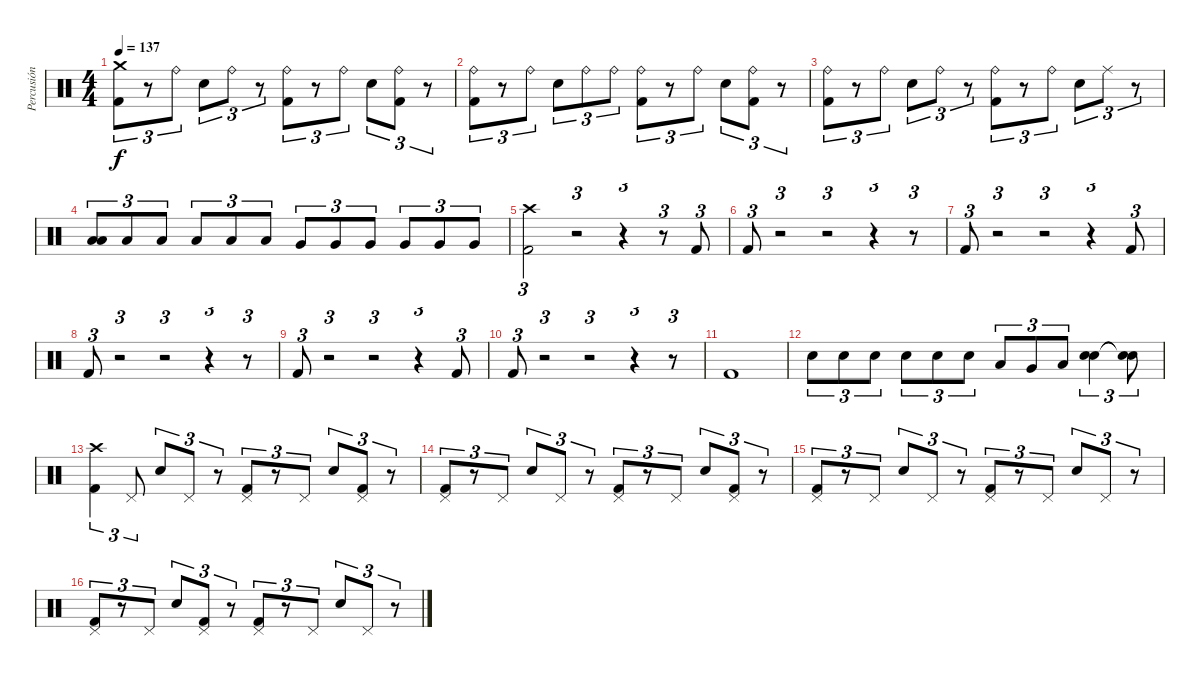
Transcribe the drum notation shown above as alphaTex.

\track ("Percusión" "Percusión") {instrument percussion}
\staff {score}
\articulation defaults
\ts (4 4)
\tempo 137
\clef neutral
\ks c
("Kick (hit) 2" "Crash medium (hit)").8{tu (3 2) dy f} r.8{tu (3 2)} "Ride (bell)".8{tu (3 2)} "Electric Snare (hit)".8{tu (3 2)} "Ride (bell)".8{tu (3 2)} r.8{tu (3 2)} ("Kick (hit) 2" "Ride (bell)").8{tu (3 2)} r.8{tu (3 2)} "Ride (bell)".8{tu (3 2)} "Electric Snare (hit)".8{tu (3 2)} ("Kick (hit) 2" "Ride (bell)").8{tu (3 2)} r.8{tu (3 2)} |
("Kick (hit) 2" "Ride (bell)").8{tu (3 2)} r.8{tu (3 2)} "Ride (bell)".8{tu (3 2)} "Electric Snare (hit)".8{tu (3 2)} "Ride (bell)".8{tu (3 2)} "Ride (bell)".8{tu (3 2)} ("Kick (hit) 2" "Ride (bell)").8{tu (3 2)} r.8{tu (3 2)} "Ride (bell)".8{tu (3 2)} "Electric Snare (hit)".8{tu (3 2)} ("Kick (hit) 2" "Ride (bell)").8{tu (3 2)} r.8{tu (3 2)} |
("Kick (hit) 2" "Ride (bell)").8{tu (3 2)} r.8{tu (3 2)} "Ride (bell)".8{tu (3 2)} "Electric Snare (hit)".8{tu (3 2)} "Ride (bell)".8{tu (3 2)} r.8{tu (3 2)} ("Kick (hit) 2" "Ride (bell)").8{tu (3 2)} r.8{tu (3 2)} "Ride (bell)".8{tu (3 2)} "Electric Snare (hit)".8{tu (3 2)} "Ride (middle)".8{tu (3 2)} r.8{tu (3 2)} |
("Low Floor Tom (hit)" "Low Floor Tom (hit)").8{tu (3 2) bd 480} "Low Floor Tom (hit)".8{tu (3 2)} "Low Floor Tom (hit)".8{tu (3 2)} "Low Floor Tom (hit)".8{tu (3 2)} "Low Floor Tom (hit)".8{tu (3 2)} "Low Floor Tom (hit)".8{tu (3 2)} "Very Low Tom (hit)".8{tu (3 2)} "Very Low Tom (hit)".8{tu (3 2)} "Very Low Tom (hit)".8{tu (3 2)} "Very Low Tom (hit)".8{tu (3 2)} "Very Low Tom (hit)".8{tu (3 2)} "Very Low Tom (hit)".8{tu (3 2)} |
("Kick (hit) 2" "Crash high (hit)").2{tu (3 2)} r.2{tu (3 2)} r.4{tu (3 2)} r.8{tu (3 2)} "Kick (hit) 2".8{tu (3 2)} |
"Kick (hit) 2".8{tu (3 2)} r.2{tu (3 2)} r.2{tu (3 2)} r.4{tu (3 2)} r.8{tu (3 2)} |
"Kick (hit) 2".8{tu (3 2)} r.2{tu (3 2)} r.2{tu (3 2)} r.4{tu (3 2)} "Kick (hit) 2".8{tu (3 2)} |
"Kick (hit) 2".8{tu (3 2)} r.2{tu (3 2)} r.2{tu (3 2)} r.4{tu (3 2)} r.8{tu (3 2)} |
"Kick (hit) 2".8{tu (3 2)} r.2{tu (3 2)} r.2{tu (3 2)} r.4{tu (3 2)} "Kick (hit) 2".8{tu (3 2)} |
"Kick (hit) 2".8{tu (3 2)} r.2{tu (3 2)} r.2{tu (3 2)} r.4{tu (3 2)} r.8{tu (3 2)} |
"Kick (hit) 2".1 |
"Electric Snare (hit)".8{tu (3 2)} "Electric Snare (hit)".8{tu (3 2)} "Electric Snare (hit)".8{tu (3 2)} "Electric Snare (hit)".8{tu (3 2)} "Electric Snare (hit)".8{tu (3 2)} "Electric Snare (hit)".8{tu (3 2)} "Low Tom (hit)".8{tu (3 2)} "Very Low Tom (hit)".8{tu (3 2)} "Low Floor Tom (hit)".8{tu (3 2)} ("Electric Snare (hit)" "Electric Snare (hit)").4{tu (3 2) bd 480} ("Electric Snare (hit)"{t} "Electric Snare (hit)"{t}).8{tu (3 2)} |
("Kick (hit) 2" "Crash high (hit)").4{tu (3 2)} "Pedal Hi-Hat (hit)".8{tu (3 2)} "Electric Snare (hit)".8{tu (3 2)} "Pedal Hi-Hat (hit)".8{tu (3 2)} r.8{tu (3 2)} ("Kick (hit) 2" "Pedal Hi-Hat (hit)").8{tu (3 2)} r.8{tu (3 2)} "Pedal Hi-Hat (hit)".8{tu (3 2)} "Electric Snare (hit)".8{tu (3 2)} ("Kick (hit) 2" "Pedal Hi-Hat (hit)").8{tu (3 2)} r.8{tu (3 2)} |
("Kick (hit) 2" "Pedal Hi-Hat (hit)").8{tu (3 2)} r.8{tu (3 2)} "Pedal Hi-Hat (hit)".8{tu (3 2)} "Electric Snare (hit)".8{tu (3 2)} "Pedal Hi-Hat (hit)".8{tu (3 2)} r.8{tu (3 2)} ("Kick (hit) 2" "Pedal Hi-Hat (hit)").8{tu (3 2)} r.8{tu (3 2)} "Pedal Hi-Hat (hit)".8{tu (3 2)} "Electric Snare (hit)".8{tu (3 2)} ("Kick (hit) 2" "Pedal Hi-Hat (hit)").8{tu (3 2)} r.8{tu (3 2)} |
("Kick (hit) 2" "Pedal Hi-Hat (hit)").8{tu (3 2)} r.8{tu (3 2)} "Pedal Hi-Hat (hit)".8{tu (3 2)} "Electric Snare (hit)".8{tu (3 2)} "Pedal Hi-Hat (hit)".8{tu (3 2)} r.8{tu (3 2)} ("Kick (hit) 2" "Pedal Hi-Hat (hit)").8{tu (3 2)} r.8{tu (3 2)} "Pedal Hi-Hat (hit)".8{tu (3 2)} "Electric Snare (hit)".8{tu (3 2)} "Pedal Hi-Hat (hit)".8{tu (3 2)} r.8{tu (3 2)} |
("Kick (hit) 2" "Pedal Hi-Hat (hit)").8{tu (3 2)} r.8{tu (3 2)} "Pedal Hi-Hat (hit)".8{tu (3 2)} "Electric Snare (hit)".8{tu (3 2)} ("Kick (hit) 2" "Pedal Hi-Hat (hit)").8{tu (3 2)} r.8{tu (3 2)} ("Kick (hit) 2" "Pedal Hi-Hat (hit)").8{tu (3 2)} r.8{tu (3 2)} "Pedal Hi-Hat (hit)".8{tu (3 2)} "Electric Snare (hit)".8{tu (3 2)} "Pedal Hi-Hat (hit)".8{tu (3 2)} r.8{tu (3 2)}
